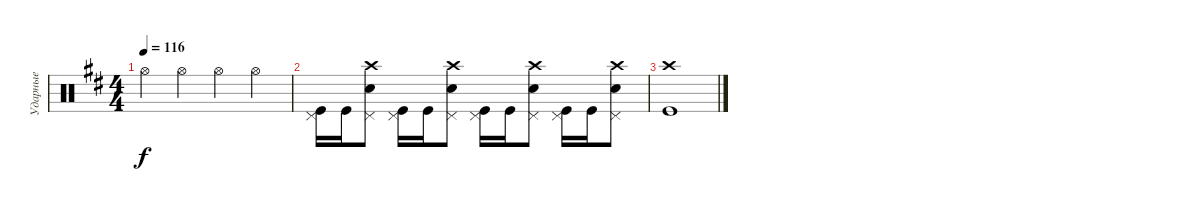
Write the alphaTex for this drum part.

\track ("Ударные" "Ударные") {instrument percussion}
\staff {score}
\articulation defaults
\ts (4 4)
\tempo 116
\clef neutral
\ks bminor "Hi-Hat (open)".4{dy f} "Hi-Hat (open)".4 "Hi-Hat (open)".4 "Hi-Hat (open)".4
|
("Pedal Hi-Hat (hit)" "Kick (hit)").16 "Kick (hit)".16 ("Snare (hit) 2" "Crash high (hit)" "Pedal Hi-Hat (hit)").8 ("Kick (hit)" "Pedal Hi-Hat (hit)").16 "Kick (hit)".16 ("Snare (hit) 2" "Crash high (hit)" "Pedal Hi-Hat (hit)").8 ("Kick (hit)" "Pedal Hi-Hat (hit)").16 "Kick (hit)".16 ("Snare (hit) 2" "Crash high (hit)" "Pedal Hi-Hat (hit)").8 ("Kick (hit)" "Pedal Hi-Hat (hit)").16 "Kick (hit)".16 ("Snare (hit) 2" "Crash high (hit)" "Pedal Hi-Hat (hit)").8 |
("Kick (hit)" "Crash high (hit)").1
